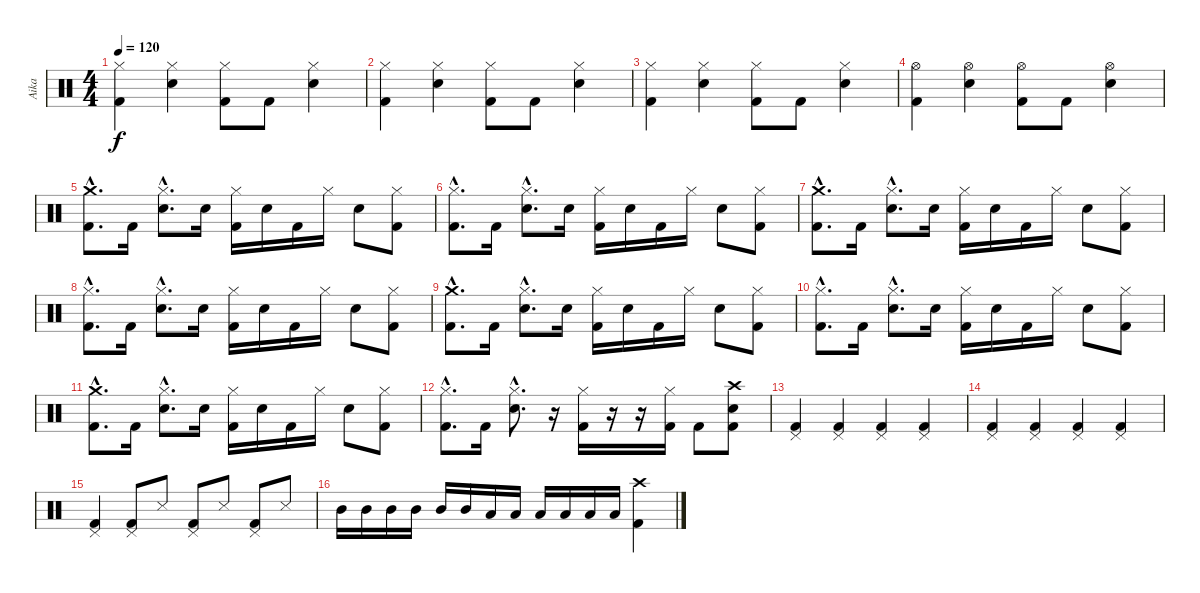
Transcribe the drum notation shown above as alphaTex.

\track ("Aika" "Aika") {instrument percussion}
\staff {score}
\articulation defaults
\ts (4 4)
\tempo 120
\clef neutral
\ks c
("Hi-Hat (closed)" "Kick (hit) 2").4{dy f} ("Hi-Hat (closed)" "Snare (hit) 2").4 ("Hi-Hat (closed)" "Kick (hit) 2").8 "Kick (hit) 2".8 ("Hi-Hat (closed)" "Snare (hit) 2").4 |
("Hi-Hat (closed)" "Kick (hit) 2").4 ("Hi-Hat (closed)" "Snare (hit) 2").4 ("Hi-Hat (closed)" "Kick (hit) 2").8 "Kick (hit) 2".8 ("Hi-Hat (closed)" "Snare (hit) 2").4 |
("Hi-Hat (closed)" "Kick (hit) 2").4 ("Hi-Hat (closed)" "Snare (hit) 2").4 ("Hi-Hat (closed)" "Kick (hit) 2").8 "Kick (hit) 2".8 ("Hi-Hat (closed)" "Snare (hit) 2").4 |
("Hi-Hat (open)" "Kick (hit) 2").4 ("Hi-Hat (open)" "Snare (hit) 2").4 ("Hi-Hat (open)" "Kick (hit) 2").8 "Kick (hit) 2".8 ("Hi-Hat (open)" "Snare (hit) 2").4 |
("Crash medium (hit)"{hac} "Kick (hit) 2"{hac}).8{d} "Kick (hit) 2".16 ("Hi-Hat (closed)"{hac} "Snare (hit) 2"{hac}).8{d} "Snare (hit) 2".16 ("Hi-Hat (closed)" "Kick (hit) 2").16 "Snare (hit) 2".16 "Kick (hit) 2".16 "Hi-Hat (closed)".16 "Snare (hit) 2".8 ("Hi-Hat (closed)" "Kick (hit) 2").8 |
("Hi-Hat (closed)"{hac} "Kick (hit) 2"{hac}).8{d} "Kick (hit) 2".16 ("Hi-Hat (closed)"{hac} "Snare (hit) 2"{hac}).8{d} "Snare (hit) 2".16 ("Hi-Hat (closed)" "Kick (hit) 2").16 "Snare (hit) 2".16 "Kick (hit) 2".16 "Hi-Hat (closed)".16 "Snare (hit) 2".8 ("Hi-Hat (closed)" "Kick (hit) 2").8 |
("Crash medium (hit)"{hac} "Kick (hit) 2"{hac}).8{d} "Kick (hit) 2".16 ("Hi-Hat (closed)"{hac} "Snare (hit) 2"{hac}).8{d} "Snare (hit) 2".16 ("Hi-Hat (closed)" "Kick (hit) 2").16 "Snare (hit) 2".16 "Kick (hit) 2".16 "Hi-Hat (closed)".16 "Snare (hit) 2".8 ("Hi-Hat (closed)" "Kick (hit) 2").8 |
("Hi-Hat (closed)"{hac} "Kick (hit) 2"{hac}).8{d} "Kick (hit) 2".16 ("Hi-Hat (closed)"{hac} "Snare (hit) 2"{hac}).8{d} "Snare (hit) 2".16 ("Hi-Hat (closed)" "Kick (hit) 2").16 "Snare (hit) 2".16 "Kick (hit) 2".16 "Hi-Hat (closed)".16 "Snare (hit) 2".8 ("Hi-Hat (closed)" "Kick (hit) 2").8 |
("Crash medium (hit)"{hac} "Kick (hit) 2"{hac}).8{d} "Kick (hit) 2".16 ("Hi-Hat (closed)"{hac} "Snare (hit) 2"{hac}).8{d} "Snare (hit) 2".16 ("Hi-Hat (closed)" "Kick (hit) 2").16 "Snare (hit) 2".16 "Kick (hit) 2".16 "Hi-Hat (closed)".16 "Snare (hit) 2".8 ("Hi-Hat (closed)" "Kick (hit) 2").8 |
("Hi-Hat (closed)"{hac} "Kick (hit) 2"{hac}).8{d} "Kick (hit) 2".16 ("Hi-Hat (closed)"{hac} "Snare (hit) 2"{hac}).8{d} "Snare (hit) 2".16 ("Hi-Hat (closed)" "Kick (hit) 2").16 "Snare (hit) 2".16 "Kick (hit) 2".16 "Hi-Hat (closed)".16 "Snare (hit) 2".8 ("Hi-Hat (closed)" "Kick (hit) 2").8 |
("Crash medium (hit)"{hac} "Kick (hit) 2"{hac}).8{d} "Kick (hit) 2".16 ("Hi-Hat (closed)"{hac} "Snare (hit) 2"{hac}).8{d} "Snare (hit) 2".16 ("Hi-Hat (closed)" "Kick (hit) 2").16 "Snare (hit) 2".16 "Kick (hit) 2".16 "Hi-Hat (closed)".16 "Snare (hit) 2".8 ("Hi-Hat (closed)" "Kick (hit) 2").8 |
("Hi-Hat (closed)"{hac} "Kick (hit) 2"{hac}).8{d} "Kick (hit) 2".16 ("Hi-Hat (closed)"{hac} "Snare (hit) 2"{hac}).8{d} r.16 ("Hi-Hat (closed)" "Kick (hit) 2").16 r.16 r.16 ("Hi-Hat (closed)" "Kick (hit) 2").16 "Kick (hit) 2".8 ("Crash high (hit)" "Snare (hit) 2" "Kick (hit) 2").8 |
("Pedal Hi-Hat (hit)" "Kick (hit) 2").4 ("Pedal Hi-Hat (hit)" "Kick (hit) 2").4 ("Pedal Hi-Hat (hit)" "Kick (hit) 2").4 ("Pedal Hi-Hat (hit)" "Kick (hit) 2").4 |
("Pedal Hi-Hat (hit)" "Kick (hit) 2").4 ("Pedal Hi-Hat (hit)" "Kick (hit) 2").4 ("Pedal Hi-Hat (hit)" "Kick (hit) 2").4 ("Pedal Hi-Hat (hit)" "Kick (hit) 2").4 |
("Pedal Hi-Hat (hit)" "Kick (hit) 2").4 ("Pedal Hi-Hat (hit)" "Kick (hit) 2").8 "Snare (side stick) 3".8 ("Pedal Hi-Hat (hit)" "Kick (hit) 2").8 "Snare (side stick) 3".8 ("Pedal Hi-Hat (hit)" "Kick (hit) 2").8 "Snare (side stick) 3".8 |
"Mid Tom (hit)".16 "Mid Tom (hit)".16 "Mid Tom (hit)".16 "Mid Tom (hit)".16 "Mid Tom (hit)".16 "Mid Tom (hit)".16 "Low Tom (hit)".16 "Low Tom (hit)".16 "Low Tom (hit)".16 "Low Tom (hit)".16 "Low Tom (hit)".16 "Low Tom (hit)".16 ("Crash high (hit)" "Kick (hit) 2").4
